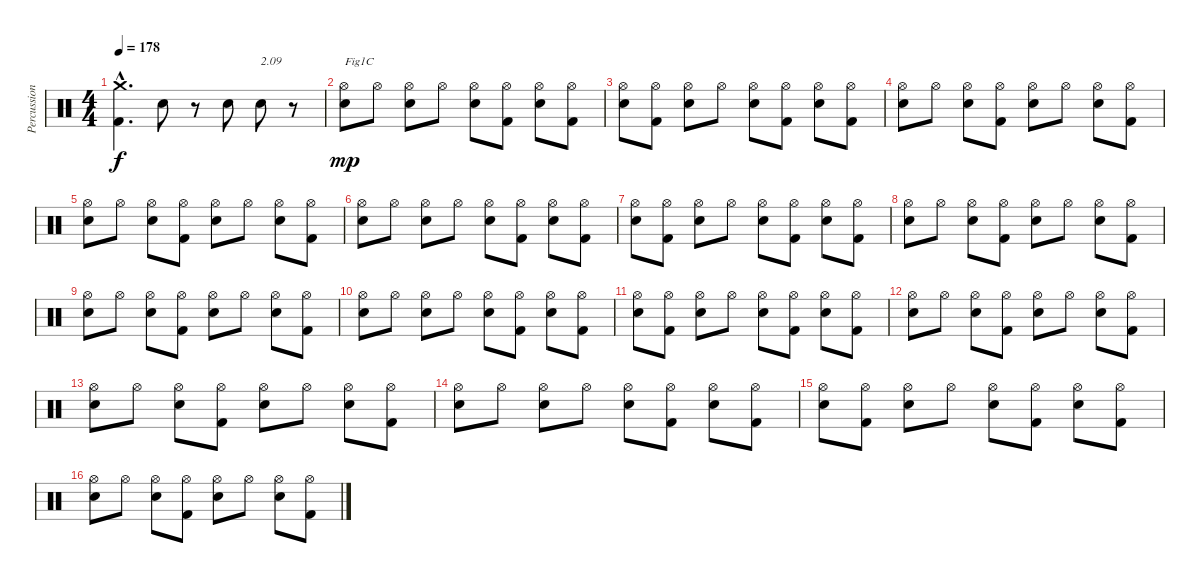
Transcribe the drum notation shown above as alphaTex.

\track ("Percussions" "Percussion") {instrument percussion}
\staff {score}
\articulation defaults
\ts (4 4)
\tempo 178
\clef neutral
\ks c
("Kick (hit) 2"{hac} "Crash medium (hit)"{hac}).4{d dy f} "Electric Snare (hit)".8 r.8 "Electric Snare (hit)".8 "Electric Snare (hit)".8{txt "2.09"} r.8 |
("Electric Snare (hit)" "Hi-Hat (open)").8{txt "Fig1C" dy mp} "Hi-Hat (open)".8 ("Electric Snare (hit)" "Hi-Hat (open)").8 "Hi-Hat (open)".8 ("Electric Snare (hit)" "Hi-Hat (open)").8 ("Kick (hit) 2" "Hi-Hat (open)").8 ("Electric Snare (hit)" "Hi-Hat (open)").8 ("Kick (hit) 2" "Hi-Hat (open)").8 |
("Electric Snare (hit)" "Hi-Hat (open)").8 ("Kick (hit) 2" "Hi-Hat (open)").8 ("Electric Snare (hit)" "Hi-Hat (open)").8 "Hi-Hat (open)".8 ("Electric Snare (hit)" "Hi-Hat (open)").8 ("Kick (hit) 2" "Hi-Hat (open)").8 ("Electric Snare (hit)" "Hi-Hat (open)").8 ("Kick (hit) 2" "Hi-Hat (open)").8 |
("Electric Snare (hit)" "Hi-Hat (open)").8 "Hi-Hat (open)".8 ("Electric Snare (hit)" "Hi-Hat (open)").8 ("Kick (hit) 2" "Hi-Hat (open)").8 ("Electric Snare (hit)" "Hi-Hat (open)").8 "Hi-Hat (open)".8 ("Electric Snare (hit)" "Hi-Hat (open)").8 ("Kick (hit) 2" "Hi-Hat (open)").8 |
("Electric Snare (hit)" "Hi-Hat (open)").8 "Hi-Hat (open)".8 ("Electric Snare (hit)" "Hi-Hat (open)").8 ("Kick (hit) 2" "Hi-Hat (open)").8 ("Electric Snare (hit)" "Hi-Hat (open)").8 "Hi-Hat (open)".8 ("Electric Snare (hit)" "Hi-Hat (open)").8 ("Kick (hit) 2" "Hi-Hat (open)").8 |
("Electric Snare (hit)" "Hi-Hat (open)").8 "Hi-Hat (open)".8 ("Electric Snare (hit)" "Hi-Hat (open)").8 "Hi-Hat (open)".8 ("Electric Snare (hit)" "Hi-Hat (open)").8 ("Kick (hit) 2" "Hi-Hat (open)").8 ("Electric Snare (hit)" "Hi-Hat (open)").8 ("Kick (hit) 2" "Hi-Hat (open)").8 |
("Electric Snare (hit)" "Hi-Hat (open)").8 ("Kick (hit) 2" "Hi-Hat (open)").8 ("Electric Snare (hit)" "Hi-Hat (open)").8 "Hi-Hat (open)".8 ("Electric Snare (hit)" "Hi-Hat (open)").8 ("Kick (hit) 2" "Hi-Hat (open)").8 ("Electric Snare (hit)" "Hi-Hat (open)").8 ("Kick (hit) 2" "Hi-Hat (open)").8 |
("Electric Snare (hit)" "Hi-Hat (open)").8 "Hi-Hat (open)".8 ("Electric Snare (hit)" "Hi-Hat (open)").8 ("Kick (hit) 2" "Hi-Hat (open)").8 ("Electric Snare (hit)" "Hi-Hat (open)").8 "Hi-Hat (open)".8 ("Electric Snare (hit)" "Hi-Hat (open)").8 ("Kick (hit) 2" "Hi-Hat (open)").8 |
("Electric Snare (hit)" "Hi-Hat (open)").8 "Hi-Hat (open)".8 ("Electric Snare (hit)" "Hi-Hat (open)").8 ("Kick (hit) 2" "Hi-Hat (open)").8 ("Electric Snare (hit)" "Hi-Hat (open)").8 "Hi-Hat (open)".8 ("Electric Snare (hit)" "Hi-Hat (open)").8 ("Kick (hit) 2" "Hi-Hat (open)").8 |
("Electric Snare (hit)" "Hi-Hat (open)").8 "Hi-Hat (open)".8 ("Electric Snare (hit)" "Hi-Hat (open)").8 "Hi-Hat (open)".8 ("Electric Snare (hit)" "Hi-Hat (open)").8 ("Kick (hit) 2" "Hi-Hat (open)").8 ("Electric Snare (hit)" "Hi-Hat (open)").8 ("Kick (hit) 2" "Hi-Hat (open)").8 |
("Electric Snare (hit)" "Hi-Hat (open)").8 ("Kick (hit) 2" "Hi-Hat (open)").8 ("Electric Snare (hit)" "Hi-Hat (open)").8 "Hi-Hat (open)".8 ("Electric Snare (hit)" "Hi-Hat (open)").8 ("Kick (hit) 2" "Hi-Hat (open)").8 ("Electric Snare (hit)" "Hi-Hat (open)").8 ("Kick (hit) 2" "Hi-Hat (open)").8 |
("Electric Snare (hit)" "Hi-Hat (open)").8 "Hi-Hat (open)".8 ("Electric Snare (hit)" "Hi-Hat (open)").8 ("Kick (hit) 2" "Hi-Hat (open)").8 ("Electric Snare (hit)" "Hi-Hat (open)").8 "Hi-Hat (open)".8 ("Electric Snare (hit)" "Hi-Hat (open)").8 ("Kick (hit) 2" "Hi-Hat (open)").8 |
("Electric Snare (hit)" "Hi-Hat (open)").8 "Hi-Hat (open)".8 ("Electric Snare (hit)" "Hi-Hat (open)").8 ("Kick (hit) 2" "Hi-Hat (open)").8 ("Electric Snare (hit)" "Hi-Hat (open)").8 "Hi-Hat (open)".8 ("Electric Snare (hit)" "Hi-Hat (open)").8 ("Kick (hit) 2" "Hi-Hat (open)").8 |
("Electric Snare (hit)" "Hi-Hat (open)").8 "Hi-Hat (open)".8 ("Electric Snare (hit)" "Hi-Hat (open)").8 "Hi-Hat (open)".8 ("Electric Snare (hit)" "Hi-Hat (open)").8 ("Kick (hit) 2" "Hi-Hat (open)").8 ("Electric Snare (hit)" "Hi-Hat (open)").8 ("Kick (hit) 2" "Hi-Hat (open)").8 |
("Electric Snare (hit)" "Hi-Hat (open)").8 ("Kick (hit) 2" "Hi-Hat (open)").8 ("Electric Snare (hit)" "Hi-Hat (open)").8 "Hi-Hat (open)".8 ("Electric Snare (hit)" "Hi-Hat (open)").8 ("Kick (hit) 2" "Hi-Hat (open)").8 ("Electric Snare (hit)" "Hi-Hat (open)").8 ("Kick (hit) 2" "Hi-Hat (open)").8 |
("Electric Snare (hit)" "Hi-Hat (open)").8 "Hi-Hat (open)".8 ("Electric Snare (hit)" "Hi-Hat (open)").8 ("Kick (hit) 2" "Hi-Hat (open)").8 ("Electric Snare (hit)" "Hi-Hat (open)").8 "Hi-Hat (open)".8 ("Electric Snare (hit)" "Hi-Hat (open)").8 ("Kick (hit) 2" "Hi-Hat (open)").8
